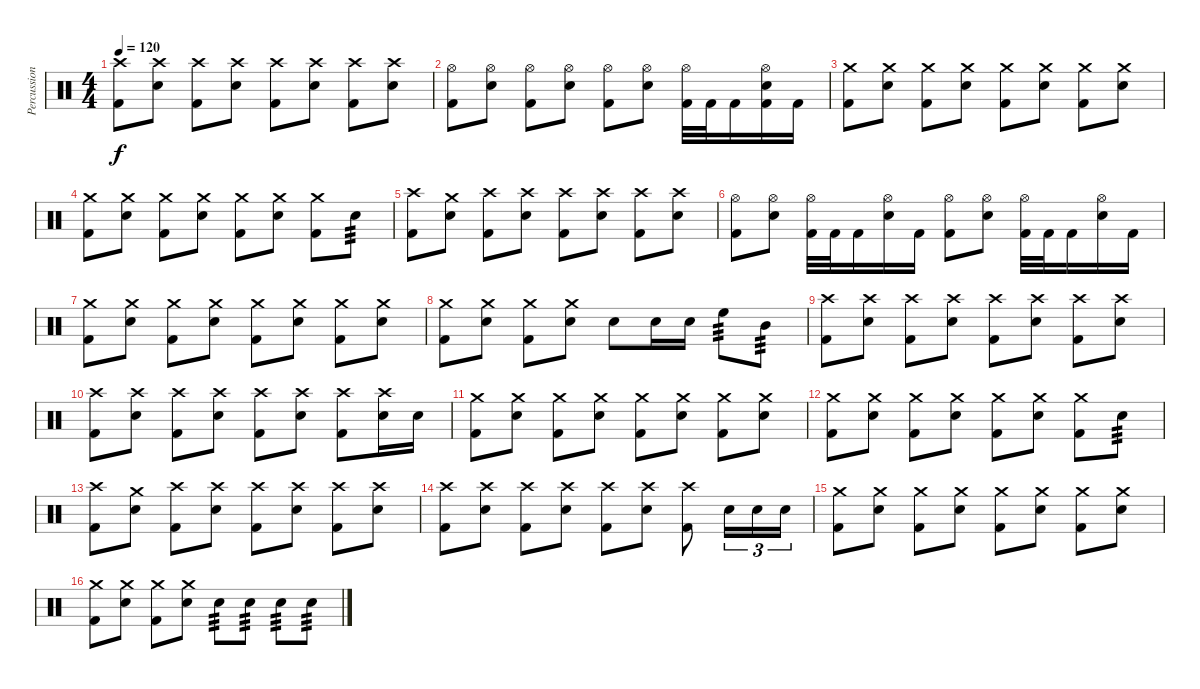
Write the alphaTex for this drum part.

\track ("Percussions" "Percussion") {instrument percussion}
\staff {score}
\articulation defaults
\ts (4 4)
\tempo 120
\clef neutral
\ks c
("Crash high (hit)" "Kick (hit) 2").8{dy f} ("Crash high (hit)" "Snare (hit) 2").8 ("Crash high (hit)" "Kick (hit) 2").8 ("Crash high (hit)" "Snare (hit) 2").8 ("Crash high (hit)" "Kick (hit) 2").8 ("Crash high (hit)" "Snare (hit) 2").8 ("Crash high (hit)" "Kick (hit) 2").8 ("Crash high (hit)" "Snare (hit) 2").8 |
("Hi-Hat (open)" "Kick (hit) 2").8 ("Hi-Hat (open)" "Snare (hit) 2").8 ("Hi-Hat (open)" "Kick (hit) 2").8 ("Hi-Hat (open)" "Snare (hit) 2").8 ("Hi-Hat (open)" "Kick (hit) 2").8 ("Hi-Hat (open)" "Snare (hit) 2").8 ("Hi-Hat (open)" "Kick (hit) 2").32 "Kick (hit) 2".32 "Kick (hit) 2".16 ("Hi-Hat (open)" "Snare (hit) 2" "Kick (hit) 2").16 "Kick (hit) 2".16 |
("Crash medium (hit)" "Kick (hit) 2").8 ("Crash medium (hit)" "Snare (hit) 2").8 ("Crash medium (hit)" "Kick (hit) 2").8 ("Crash medium (hit)" "Snare (hit) 2").8 ("Crash medium (hit)" "Kick (hit) 2").8 ("Crash medium (hit)" "Snare (hit) 2").8 ("Crash medium (hit)" "Kick (hit) 2").8 ("Crash medium (hit)" "Snare (hit) 2").8 |
("Crash medium (hit)" "Kick (hit) 2").8 ("Crash medium (hit)" "Snare (hit) 2").8 ("Crash medium (hit)" "Kick (hit) 2").8 ("Crash medium (hit)" "Snare (hit) 2").8 ("Crash medium (hit)" "Kick (hit) 2").8 ("Crash medium (hit)" "Snare (hit) 2").8 ("Crash medium (hit)" "Kick (hit) 2").8 "Snare (hit) 2".8{tp 3} |
("Crash high (hit)" "Kick (hit) 2").8 ("Crash medium (hit)" "Snare (hit) 2").8 ("Crash high (hit)" "Kick (hit) 2").8 ("Crash high (hit)" "Snare (hit) 2").8 ("Crash high (hit)" "Kick (hit) 2").8 ("Crash high (hit)" "Snare (hit) 2").8 ("Crash high (hit)" "Kick (hit) 2").8 ("Crash high (hit)" "Snare (hit) 2").8 |
("Hi-Hat (open)" "Kick (hit) 2").8 ("Hi-Hat (open)" "Snare (hit) 2").8 ("Hi-Hat (open)" "Kick (hit) 2").32 "Kick (hit) 2".32 "Kick (hit) 2".16 ("Hi-Hat (open)" "Snare (hit) 2").16 "Kick (hit) 2".16 ("Hi-Hat (open)" "Kick (hit) 2").8 ("Hi-Hat (open)" "Snare (hit) 2").8 ("Hi-Hat (open)" "Kick (hit) 2").32 "Kick (hit) 2".32 "Kick (hit) 2".16 ("Hi-Hat (open)" "Snare (hit) 2").16 "Kick (hit) 2".16 |
("Crash medium (hit)" "Kick (hit) 2").8 ("Crash medium (hit)" "Snare (hit) 2").8 ("Crash medium (hit)" "Kick (hit) 2").8 ("Crash medium (hit)" "Snare (hit) 2").8 ("Crash medium (hit)" "Kick (hit) 2").8 ("Crash medium (hit)" "Snare (hit) 2").8 ("Crash medium (hit)" "Kick (hit) 2").8 ("Crash medium (hit)" "Snare (hit) 2").8 |
("Crash medium (hit)" "Kick (hit) 2").8 ("Crash medium (hit)" "Snare (hit) 2").8 ("Crash medium (hit)" "Kick (hit) 2").8 ("Crash medium (hit)" "Snare (hit) 2").8 "Snare (hit) 2".8 "Snare (hit) 2".16 "Snare (hit) 2".16 "High Floor Tom (hit)".8{tp 3} "Mid Tom (hit)".8{tp 3} |
("Crash high (hit)" "Kick (hit) 2").8 ("Crash high (hit)" "Snare (hit) 2").8 ("Crash high (hit)" "Kick (hit) 2").8 ("Crash high (hit)" "Snare (hit) 2").8 ("Crash high (hit)" "Kick (hit) 2").8 ("Crash high (hit)" "Snare (hit) 2").8 ("Crash high (hit)" "Kick (hit) 2").8 ("Crash high (hit)" "Snare (hit) 2").8 |
("Crash high (hit)" "Kick (hit) 2").8 ("Crash high (hit)" "Snare (hit) 2").8 ("Crash high (hit)" "Kick (hit) 2").8 ("Crash high (hit)" "Snare (hit) 2").8 ("Crash high (hit)" "Kick (hit) 2").8 ("Crash high (hit)" "Snare (hit) 2").8 ("Crash high (hit)" "Kick (hit) 2").8 ("Crash high (hit)" "Snare (hit) 2").16 "Snare (hit) 2".16 |
("Crash medium (hit)" "Kick (hit) 2").8 ("Crash medium (hit)" "Snare (hit) 2").8 ("Crash medium (hit)" "Kick (hit) 2").8 ("Crash medium (hit)" "Snare (hit) 2").8 ("Crash medium (hit)" "Kick (hit) 2").8 ("Crash medium (hit)" "Snare (hit) 2").8 ("Crash medium (hit)" "Kick (hit) 2").8 ("Crash medium (hit)" "Snare (hit) 2").8 |
("Crash medium (hit)" "Kick (hit) 2").8 ("Crash medium (hit)" "Snare (hit) 2").8 ("Crash medium (hit)" "Kick (hit) 2").8 ("Crash medium (hit)" "Snare (hit) 2").8 ("Crash medium (hit)" "Kick (hit) 2").8 ("Crash medium (hit)" "Snare (hit) 2").8 ("Crash medium (hit)" "Kick (hit) 2").8 "Snare (hit) 2".8{tp 3} |
("Crash high (hit)" "Kick (hit) 2").8 ("Crash medium (hit)" "Snare (hit) 2").8 ("Crash high (hit)" "Kick (hit) 2").8 ("Crash high (hit)" "Snare (hit) 2").8 ("Crash high (hit)" "Kick (hit) 2").8 ("Crash high (hit)" "Snare (hit) 2").8 ("Crash high (hit)" "Kick (hit) 2").8 ("Crash high (hit)" "Snare (hit) 2").8 |
("Crash high (hit)" "Kick (hit) 2").8 ("Crash high (hit)" "Snare (hit) 2").8 ("Crash high (hit)" "Kick (hit) 2").8 ("Crash high (hit)" "Snare (hit) 2").8 ("Crash high (hit)" "Kick (hit) 2").8 ("Crash high (hit)" "Snare (hit) 2").8 ("Crash high (hit)" "Kick (hit) 2").8 "Snare (hit) 2".16{tu (3 2)} "Snare (hit) 2".16{tu (3 2)} "Snare (hit) 2".16{tu (3 2)} |
("Crash medium (hit)" "Kick (hit) 2").8 ("Crash medium (hit)" "Snare (hit) 2").8 ("Crash medium (hit)" "Kick (hit) 2").8 ("Crash medium (hit)" "Snare (hit) 2").8 ("Crash medium (hit)" "Kick (hit) 2").8 ("Crash medium (hit)" "Snare (hit) 2").8 ("Crash medium (hit)" "Kick (hit) 2").8 ("Crash medium (hit)" "Snare (hit) 2").8 |
("Crash medium (hit)" "Kick (hit) 2").8 ("Crash medium (hit)" "Snare (hit) 2").8 ("Crash medium (hit)" "Kick (hit) 2").8 ("Crash medium (hit)" "Snare (hit) 2").8 "Snare (hit) 2".8{tp 3} "Snare (hit) 2".8{tp 3} "Snare (hit) 2".8{tp 3} "Snare (hit) 2".8{tp 3}
